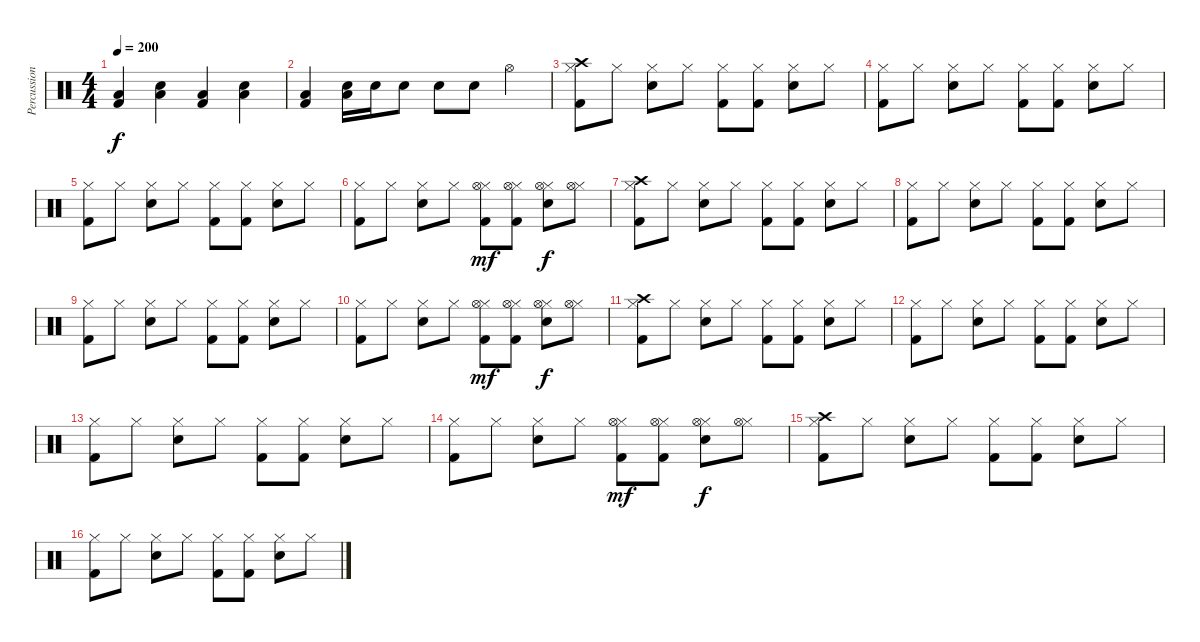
\track ("Percussions" "Percussion") {instrument percussion}
\staff {score}
\articulation defaults
\ts (4 4)
\tempo 200
\clef neutral
\ks c
("Low Floor Tom (hit)" "Kick (hit) 2").4{dy f} ("Electric Snare (hit)" "Low Floor Tom (hit)").4 ("Low Floor Tom (hit)" "Kick (hit) 2").4 ("Electric Snare (hit)" "Low Floor Tom (hit)").4 |
("Low Floor Tom (hit)" "Kick (hit) 2").4 ("Electric Snare (hit)" "Low Floor Tom (hit)").16 "Electric Snare (hit)".16 "Electric Snare (hit)".8 "Electric Snare (hit)".8 "Electric Snare (hit)".8 "Hi-Hat (open)".4 |
("Crash high (hit)" "Hi-Hat (closed)" "Kick (hit) 2").8 "Hi-Hat (closed)".8 ("Hi-Hat (closed)" "Electric Snare (hit)").8 "Hi-Hat (closed)".8 ("Hi-Hat (closed)" "Kick (hit) 2").8 ("Hi-Hat (closed)" "Kick (hit) 2").8 ("Hi-Hat (closed)" "Electric Snare (hit)").8 "Hi-Hat (closed)".8 |
("Hi-Hat (closed)" "Kick (hit) 2").8 "Hi-Hat (closed)".8 ("Hi-Hat (closed)" "Electric Snare (hit)").8 "Hi-Hat (closed)".8 ("Hi-Hat (closed)" "Kick (hit) 2").8 ("Hi-Hat (closed)" "Kick (hit) 2").8 ("Hi-Hat (closed)" "Electric Snare (hit)").8 "Hi-Hat (closed)".8 |
("Hi-Hat (closed)" "Kick (hit) 2").8 "Hi-Hat (closed)".8 ("Hi-Hat (closed)" "Electric Snare (hit)").8 "Hi-Hat (closed)".8 ("Hi-Hat (closed)" "Kick (hit) 2").8 ("Hi-Hat (closed)" "Kick (hit) 2").8 ("Hi-Hat (closed)" "Electric Snare (hit)").8 "Hi-Hat (closed)".8 |
("Hi-Hat (closed)" "Kick (hit) 2").8 "Hi-Hat (closed)".8 ("Hi-Hat (closed)" "Electric Snare (hit)").8 "Hi-Hat (closed)".8 ("Hi-Hat (closed)" "Hi-Hat (open)" "Kick (hit) 2").8{dy mf} ("Hi-Hat (closed)" "Hi-Hat (open)" "Kick (hit) 2").8 ("Hi-Hat (closed)" "Hi-Hat (open)" "Electric Snare (hit)").8{dy f} ("Hi-Hat (closed)" "Hi-Hat (open)").8 |
("Crash high (hit)" "Hi-Hat (closed)" "Kick (hit) 2").8 "Hi-Hat (closed)".8 ("Hi-Hat (closed)" "Electric Snare (hit)").8 "Hi-Hat (closed)".8 ("Hi-Hat (closed)" "Kick (hit) 2").8 ("Hi-Hat (closed)" "Kick (hit) 2").8 ("Hi-Hat (closed)" "Electric Snare (hit)").8 "Hi-Hat (closed)".8 |
("Hi-Hat (closed)" "Kick (hit) 2").8 "Hi-Hat (closed)".8 ("Hi-Hat (closed)" "Electric Snare (hit)").8 "Hi-Hat (closed)".8 ("Hi-Hat (closed)" "Kick (hit) 2").8 ("Hi-Hat (closed)" "Kick (hit) 2").8 ("Hi-Hat (closed)" "Electric Snare (hit)").8 "Hi-Hat (closed)".8 |
("Hi-Hat (closed)" "Kick (hit) 2").8 "Hi-Hat (closed)".8 ("Hi-Hat (closed)" "Electric Snare (hit)").8 "Hi-Hat (closed)".8 ("Hi-Hat (closed)" "Kick (hit) 2").8 ("Hi-Hat (closed)" "Kick (hit) 2").8 ("Hi-Hat (closed)" "Electric Snare (hit)").8 "Hi-Hat (closed)".8 |
("Hi-Hat (closed)" "Kick (hit) 2").8 "Hi-Hat (closed)".8 ("Hi-Hat (closed)" "Electric Snare (hit)").8 "Hi-Hat (closed)".8 ("Hi-Hat (closed)" "Hi-Hat (open)" "Kick (hit) 2").8{dy mf} ("Hi-Hat (closed)" "Hi-Hat (open)" "Kick (hit) 2").8 ("Hi-Hat (closed)" "Hi-Hat (open)" "Electric Snare (hit)").8{dy f} ("Hi-Hat (closed)" "Hi-Hat (open)").8 |
("Crash high (hit)" "Hi-Hat (closed)" "Kick (hit) 2").8 "Hi-Hat (closed)".8 ("Hi-Hat (closed)" "Electric Snare (hit)").8 "Hi-Hat (closed)".8 ("Hi-Hat (closed)" "Kick (hit) 2").8 ("Hi-Hat (closed)" "Kick (hit) 2").8 ("Hi-Hat (closed)" "Electric Snare (hit)").8 "Hi-Hat (closed)".8 |
("Hi-Hat (closed)" "Kick (hit) 2").8 "Hi-Hat (closed)".8 ("Hi-Hat (closed)" "Electric Snare (hit)").8 "Hi-Hat (closed)".8 ("Hi-Hat (closed)" "Kick (hit) 2").8 ("Hi-Hat (closed)" "Kick (hit) 2").8 ("Hi-Hat (closed)" "Electric Snare (hit)").8 "Hi-Hat (closed)".8 |
("Hi-Hat (closed)" "Kick (hit) 2").8 "Hi-Hat (closed)".8 ("Hi-Hat (closed)" "Electric Snare (hit)").8 "Hi-Hat (closed)".8 ("Hi-Hat (closed)" "Kick (hit) 2").8 ("Hi-Hat (closed)" "Kick (hit) 2").8 ("Hi-Hat (closed)" "Electric Snare (hit)").8 "Hi-Hat (closed)".8 |
("Hi-Hat (closed)" "Kick (hit) 2").8 "Hi-Hat (closed)".8 ("Hi-Hat (closed)" "Electric Snare (hit)").8 "Hi-Hat (closed)".8 ("Hi-Hat (closed)" "Hi-Hat (open)" "Kick (hit) 2").8{dy mf} ("Hi-Hat (closed)" "Hi-Hat (open)" "Kick (hit) 2").8 ("Hi-Hat (closed)" "Hi-Hat (open)" "Electric Snare (hit)").8{dy f} ("Hi-Hat (closed)" "Hi-Hat (open)").8 |
("Crash high (hit)" "Hi-Hat (closed)" "Kick (hit) 2").8 "Hi-Hat (closed)".8 ("Hi-Hat (closed)" "Electric Snare (hit)").8 "Hi-Hat (closed)".8 ("Hi-Hat (closed)" "Kick (hit) 2").8 ("Hi-Hat (closed)" "Kick (hit) 2").8 ("Hi-Hat (closed)" "Electric Snare (hit)").8 "Hi-Hat (closed)".8 |
("Hi-Hat (closed)" "Kick (hit) 2").8 "Hi-Hat (closed)".8 ("Hi-Hat (closed)" "Electric Snare (hit)").8 "Hi-Hat (closed)".8 ("Hi-Hat (closed)" "Kick (hit) 2").8 ("Hi-Hat (closed)" "Kick (hit) 2").8 ("Hi-Hat (closed)" "Electric Snare (hit)").8 "Hi-Hat (closed)".8
